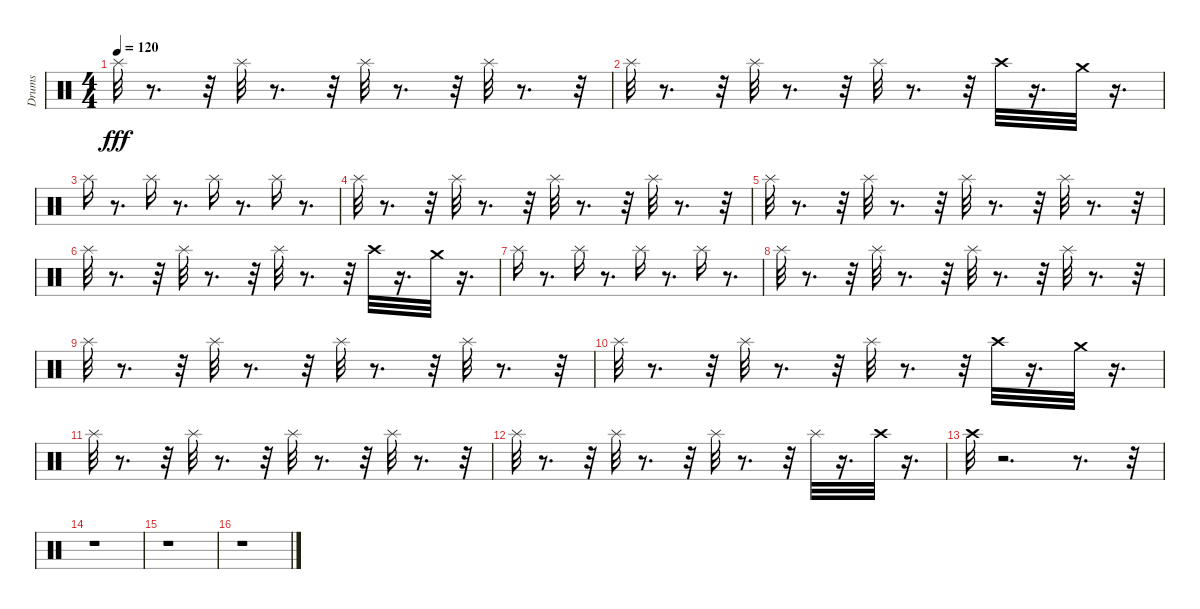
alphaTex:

\track ("Drums" "Drums") {instrument percussion}
\staff {score}
\articulation defaults
\ts (4 4)
\tempo 120
\clef neutral
\ks c "Splash (hit)".32{dy fff}
r.8{d} r.32 "Splash (hit)".32 r.8{d} r.32 "Splash (hit)".32 r.8{d} r.32 "Splash (hit)".32 r.8{d} r.32 |
"Splash (hit)".32 r.8{d} r.32 "Splash (hit)".32 r.8{d} r.32 "Splash (hit)".32 r.8{d} r.32 "Crash high (hit)".32 r.16{d} "Crash medium (hit)".32 r.16{d} |
"Splash (hit)".16 r.8{d} "Splash (hit)".16 r.8{d} "Splash (hit)".16 r.8{d} "Splash (hit)".16 r.8{d} |
"Splash (hit)".32 r.8{d} r.32 "Splash (hit)".32 r.8{d} r.32 "Splash (hit)".32 r.8{d} r.32 "Splash (hit)".32 r.8{d} r.32 |
"Splash (hit)".32 r.8{d} r.32 "Splash (hit)".32 r.8{d} r.32 "Splash (hit)".32 r.8{d} r.32 "Splash (hit)".32 r.8{d} r.32 |
"Splash (hit)".32 r.8{d} r.32 "Splash (hit)".32 r.8{d} r.32 "Splash (hit)".32 r.8{d} r.32 "Crash high (hit)".32 r.16{d} "Crash medium (hit)".32 r.16{d} |
"Splash (hit)".16 r.8{d} "Splash (hit)".16 r.8{d} "Splash (hit)".16 r.8{d} "Splash (hit)".16 r.8{d} |
"Splash (hit)".32 r.8{d} r.32 "Splash (hit)".32 r.8{d} r.32 "Splash (hit)".32 r.8{d} r.32 "Splash (hit)".32 r.8{d} r.32 |
"Splash (hit)".32 r.8{d} r.32 "Splash (hit)".32 r.8{d} r.32 "Splash (hit)".32 r.8{d} r.32 "Splash (hit)".32 r.8{d} r.32 |
"Splash (hit)".32 r.8{d} r.32 "Splash (hit)".32 r.8{d} r.32 "Splash (hit)".32 r.8{d} r.32 "Crash high (hit)".32 r.16{d} "Crash medium (hit)".32 r.16{d} |
"Splash (hit)".32 r.8{d} r.32 "Splash (hit)".32 r.8{d} r.32 "Splash (hit)".32 r.8{d} r.32 "Splash (hit)".32 r.8{d} r.32 |
"Splash (hit)".32 r.8{d} r.32 "Splash (hit)".32 r.8{d} r.32 "Splash (hit)".32 r.8{d} r.32 "Splash (hit)".32 r.16{d} "Crash high (hit)".32 r.16{d} |
"Crash high (hit)".32 r.2{d} r.8{d} r.32 |
r.1 |
r.1 |
r.1
